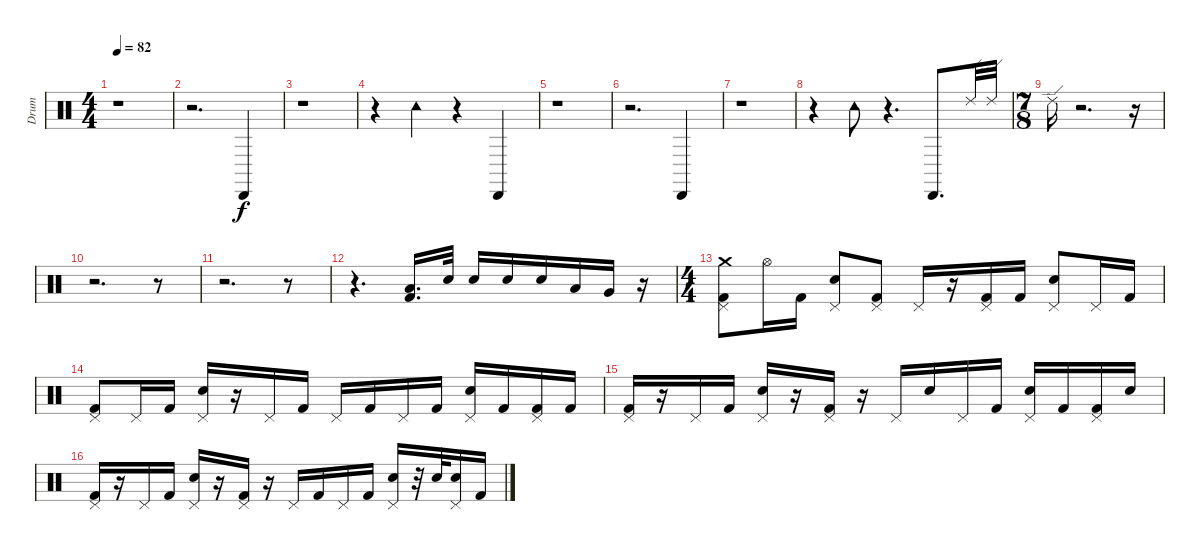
\track ("Drum" "Drum") {instrument percussion}
\staff {score}
\articulation defaults
\ts (4 4)
\tempo 82
\clef neutral
\ks c
r.1{dy f} |
r.2{d} "Cabasa (hit)".4{volume 6} |
r.1 |
r.4 "Tambourine (hit)".4 r.4 "Cabasa (hit)".4 |
r.1 |
r.2{d} "Cabasa (hit)".4 |
r.1 |
r.4 "Tambourine (hit)".8 r.4{d} "Cabasa (hit)".8{d} "Ride (edge) 2".32 "Ride (edge) 2".32 |
\ts (7 8)
"Ride (edge) 2".16 r.2{d} r.16 |
r.2{d} r.8 |
r.2{d} r.8 |
r.4{d} ("Low Tom (hit)" "Kick (hit) 2").16{d volume 10} "Electric Snare (hit)".32 "Electric Snare (hit)".16 "Electric Snare (hit)".16 "Electric Snare (hit)".16 "Low Tom (hit)".16 "Very Low Tom (hit)".16 r.16 |
\ts (4 4)
("Crash medium (hit)" "Pedal Hi-Hat (hit)" "Kick (hit) 2").8 "Hi-Hat (open)".16 "Kick (hit) 2".16 ("Pedal Hi-Hat (hit)" "Electric Snare (hit)").8 ("Pedal Hi-Hat (hit)" "Kick (hit) 2").8 "Pedal Hi-Hat (hit)".16 r.16 ("Pedal Hi-Hat (hit)" "Kick (hit) 2").16 "Kick (hit) 2".16 ("Pedal Hi-Hat (hit)" "Electric Snare (hit)").8 "Pedal Hi-Hat (hit)".16 "Kick (hit) 2".16 |
("Kick (hit) 2" "Pedal Hi-Hat (hit)").8 "Pedal Hi-Hat (hit)".16 "Kick (hit) 2".16 ("Electric Snare (hit)" "Pedal Hi-Hat (hit)").16 r.16 "Pedal Hi-Hat (hit)".16 "Kick (hit) 2".16 "Pedal Hi-Hat (hit)".16 "Kick (hit) 2".16 "Pedal Hi-Hat (hit)".16 "Kick (hit) 2".16 ("Electric Snare (hit)" "Pedal Hi-Hat (hit)").16 "Kick (hit) 2".16 ("Kick (hit) 2" "Pedal Hi-Hat (hit)").16 "Kick (hit) 2".16 |
("Pedal Hi-Hat (hit)" "Kick (hit) 2").16 r.16 "Pedal Hi-Hat (hit)".16 "Kick (hit) 2".16 ("Pedal Hi-Hat (hit)" "Electric Snare (hit)").16 r.16 ("Pedal Hi-Hat (hit)" "Kick (hit) 2").16 r.16 "Pedal Hi-Hat (hit)".16 "Electric Snare (hit)".16 "Pedal Hi-Hat (hit)".16 "Kick (hit) 2".16 ("Pedal Hi-Hat (hit)" "Electric Snare (hit)").16 "Kick (hit) 2".16 ("Pedal Hi-Hat (hit)" "Kick (hit) 2").16 "Electric Snare (hit)".16 |
("Pedal Hi-Hat (hit)" "Kick (hit) 2").16 r.16 "Pedal Hi-Hat (hit)".16 "Kick (hit) 2".16 ("Pedal Hi-Hat (hit)" "Electric Snare (hit)").16 r.16 ("Pedal Hi-Hat (hit)" "Kick (hit) 2").16 r.16 "Pedal Hi-Hat (hit)".16 "Kick (hit) 2".16 "Pedal Hi-Hat (hit)".16 "Kick (hit) 2".16 ("Pedal Hi-Hat (hit)" "Electric Snare (hit)").16 r.32 "Electric Snare (hit)".32 ("Pedal Hi-Hat (hit)" "Electric Snare (hit)").16 "Kick (hit) 2".16
